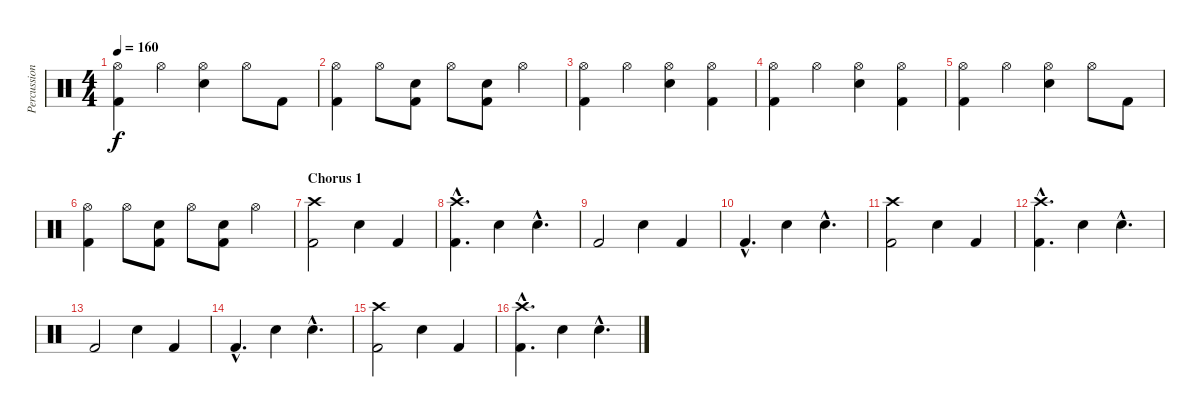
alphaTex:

\track ("Percussion" "Percussion") {instrument percussion}
\staff {score}
\articulation defaults
\ts (4 4)
\tempo 160
\clef neutral
\ks c
("Hi-Hat (open)" "Kick (hit) 2").4{dy f} "Hi-Hat (open)".4 ("Hi-Hat (open)" "Electric Snare (hit)").4 "Hi-Hat (open)".8 "Kick (hit) 2".8 |
("Hi-Hat (open)" "Kick (hit) 2").4 "Hi-Hat (open)".8 ("Electric Snare (hit)" "Kick (hit) 2").8 "Hi-Hat (open)".8 ("Electric Snare (hit)" "Kick (hit) 2").8 "Hi-Hat (open)".4 |
("Hi-Hat (open)" "Kick (hit) 2").4 "Hi-Hat (open)".4 ("Hi-Hat (open)" "Electric Snare (hit)").4 ("Hi-Hat (open)" "Kick (hit) 2").4 |
("Hi-Hat (open)" "Kick (hit) 2").4 "Hi-Hat (open)".4 ("Hi-Hat (open)" "Electric Snare (hit)").4 ("Hi-Hat (open)" "Kick (hit) 2").4 |
("Hi-Hat (open)" "Kick (hit) 2").4 "Hi-Hat (open)".4 ("Hi-Hat (open)" "Electric Snare (hit)").4 "Hi-Hat (open)".8 "Kick (hit) 2".8 |
("Hi-Hat (open)" "Kick (hit) 2").4 "Hi-Hat (open)".8 ("Electric Snare (hit)" "Kick (hit) 2").8 "Hi-Hat (open)".8 ("Electric Snare (hit)" "Kick (hit) 2").8 "Hi-Hat (open)".4 |
\section ("" "Chorus 1")
("Crash high (hit)" "Kick (hit) 2").2 "Electric Snare (hit)".4 "Kick (hit) 2".4 |
("Crash high (hit)"{hac} "Kick (hit) 2"{hac}).4{d} "Electric Snare (hit)".4 "Electric Snare (hit)"{hac}.4{d} |
"Kick (hit) 2".2 "Electric Snare (hit)".4 "Kick (hit) 2".4 |
"Kick (hit) 2"{hac}.4{d} "Electric Snare (hit)".4 "Electric Snare (hit)"{hac}.4{d} |
("Crash high (hit)" "Kick (hit) 2").2 "Electric Snare (hit)".4 "Kick (hit) 2".4 |
("Crash high (hit)"{hac} "Kick (hit) 2"{hac}).4{d} "Electric Snare (hit)".4 "Electric Snare (hit)"{hac}.4{d} |
"Kick (hit) 2".2 "Electric Snare (hit)".4 "Kick (hit) 2".4 |
"Kick (hit) 2"{hac}.4{d} "Electric Snare (hit)".4 "Electric Snare (hit)"{hac}.4{d} |
("Crash high (hit)" "Kick (hit) 2").2 "Electric Snare (hit)".4 "Kick (hit) 2".4 |
("Crash high (hit)"{hac} "Kick (hit) 2"{hac}).4{d} "Electric Snare (hit)".4 "Electric Snare (hit)"{hac}.4{d}
